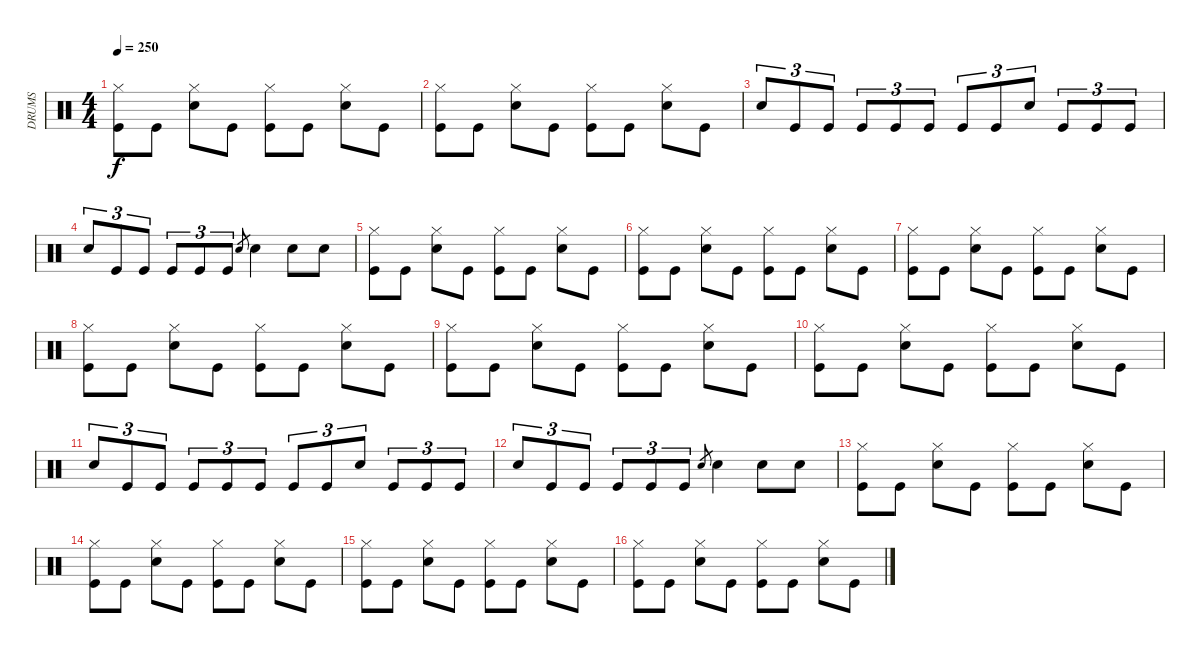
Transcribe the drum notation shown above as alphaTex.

\track ("DRUMS" "DRUMS") {instrument percussion}
\staff {score}
\articulation defaults
\ts (4 4)
\tempo 250
\clef neutral
\ks aminor
("Hi-Hat (closed)" "Kick (hit)").8{dy f} "Kick (hit)".8 ("Hi-Hat (closed)" "Snare (hit) 2").8 "Kick (hit)".8 ("Hi-Hat (closed)" "Kick (hit)").8 "Kick (hit)".8 ("Hi-Hat (closed)" "Snare (hit) 2").8 "Kick (hit)".8 |
("Hi-Hat (closed)" "Kick (hit)").8 "Kick (hit)".8 ("Hi-Hat (closed)" "Snare (hit) 2").8 "Kick (hit)".8 ("Hi-Hat (closed)" "Kick (hit)").8 "Kick (hit)".8 ("Hi-Hat (closed)" "Snare (hit) 2").8 "Kick (hit)".8 |
"Snare (hit) 2".8{tu (3 2)} "Kick (hit)".8{tu (3 2)} "Kick (hit)".8{tu (3 2)} "Kick (hit)".8{tu (3 2)} "Kick (hit)".8{tu (3 2)} "Kick (hit)".8{tu (3 2)} "Kick (hit)".8{tu (3 2)} "Kick (hit)".8{tu (3 2)} "Snare (hit) 2".8{tu (3 2)} "Kick (hit)".8{tu (3 2)} "Kick (hit)".8{tu (3 2)} "Kick (hit)".8{tu (3 2)} |
"Snare (hit) 2".8{tu (3 2)} "Kick (hit)".8{tu (3 2)} "Kick (hit)".8{tu (3 2)} "Kick (hit)".8{tu (3 2)} "Kick (hit)".8{tu (3 2)} "Kick (hit)".8{tu (3 2)} "Snare (hit) 2".8{gr} "Snare (hit) 2".4 "Snare (hit) 2".8 "Snare (hit) 2".8 |
("Hi-Hat (closed)" "Kick (hit)").8 "Kick (hit)".8 ("Hi-Hat (closed)" "Snare (hit) 2").8 "Kick (hit)".8 ("Hi-Hat (closed)" "Kick (hit)").8 "Kick (hit)".8 ("Hi-Hat (closed)" "Snare (hit) 2").8 "Kick (hit)".8 |
("Hi-Hat (closed)" "Kick (hit)").8 "Kick (hit)".8 ("Hi-Hat (closed)" "Snare (hit) 2").8 "Kick (hit)".8 ("Hi-Hat (closed)" "Kick (hit)").8 "Kick (hit)".8 ("Hi-Hat (closed)" "Snare (hit) 2").8 "Kick (hit)".8 |
("Hi-Hat (closed)" "Kick (hit)").8 "Kick (hit)".8 ("Hi-Hat (closed)" "Snare (hit) 2").8 "Kick (hit)".8 ("Hi-Hat (closed)" "Kick (hit)").8 "Kick (hit)".8 ("Hi-Hat (closed)" "Snare (hit) 2").8 "Kick (hit)".8 |
("Hi-Hat (closed)" "Kick (hit)").8 "Kick (hit)".8 ("Hi-Hat (closed)" "Snare (hit) 2").8 "Kick (hit)".8 ("Hi-Hat (closed)" "Kick (hit)").8 "Kick (hit)".8 ("Hi-Hat (closed)" "Snare (hit) 2").8 "Kick (hit)".8 |
("Hi-Hat (closed)" "Kick (hit)").8 "Kick (hit)".8 ("Hi-Hat (closed)" "Snare (hit) 2").8 "Kick (hit)".8 ("Hi-Hat (closed)" "Kick (hit)").8 "Kick (hit)".8 ("Hi-Hat (closed)" "Snare (hit) 2").8 "Kick (hit)".8 |
("Hi-Hat (closed)" "Kick (hit)").8 "Kick (hit)".8 ("Hi-Hat (closed)" "Snare (hit) 2").8 "Kick (hit)".8 ("Hi-Hat (closed)" "Kick (hit)").8 "Kick (hit)".8 ("Hi-Hat (closed)" "Snare (hit) 2").8 "Kick (hit)".8 |
"Snare (hit) 2".8{tu (3 2)} "Kick (hit)".8{tu (3 2)} "Kick (hit)".8{tu (3 2)} "Kick (hit)".8{tu (3 2)} "Kick (hit)".8{tu (3 2)} "Kick (hit)".8{tu (3 2)} "Kick (hit)".8{tu (3 2)} "Kick (hit)".8{tu (3 2)} "Snare (hit) 2".8{tu (3 2)} "Kick (hit)".8{tu (3 2)} "Kick (hit)".8{tu (3 2)} "Kick (hit)".8{tu (3 2)} |
"Snare (hit) 2".8{tu (3 2)} "Kick (hit)".8{tu (3 2)} "Kick (hit)".8{tu (3 2)} "Kick (hit)".8{tu (3 2)} "Kick (hit)".8{tu (3 2)} "Kick (hit)".8{tu (3 2)} "Snare (hit) 2".8{gr} "Snare (hit) 2".4 "Snare (hit) 2".8 "Snare (hit) 2".8 |
("Hi-Hat (closed)" "Kick (hit)").8 "Kick (hit)".8 ("Hi-Hat (closed)" "Snare (hit) 2").8 "Kick (hit)".8 ("Hi-Hat (closed)" "Kick (hit)").8 "Kick (hit)".8 ("Hi-Hat (closed)" "Snare (hit) 2").8 "Kick (hit)".8 |
("Hi-Hat (closed)" "Kick (hit)").8 "Kick (hit)".8 ("Hi-Hat (closed)" "Snare (hit) 2").8 "Kick (hit)".8 ("Hi-Hat (closed)" "Kick (hit)").8 "Kick (hit)".8 ("Hi-Hat (closed)" "Snare (hit) 2").8 "Kick (hit)".8 |
("Hi-Hat (closed)" "Kick (hit)").8 "Kick (hit)".8 ("Hi-Hat (closed)" "Snare (hit) 2").8 "Kick (hit)".8 ("Hi-Hat (closed)" "Kick (hit)").8 "Kick (hit)".8 ("Hi-Hat (closed)" "Snare (hit) 2").8 "Kick (hit)".8 |
("Hi-Hat (closed)" "Kick (hit)").8 "Kick (hit)".8 ("Hi-Hat (closed)" "Snare (hit) 2").8 "Kick (hit)".8 ("Hi-Hat (closed)" "Kick (hit)").8 "Kick (hit)".8 ("Hi-Hat (closed)" "Snare (hit) 2").8 "Kick (hit)".8
